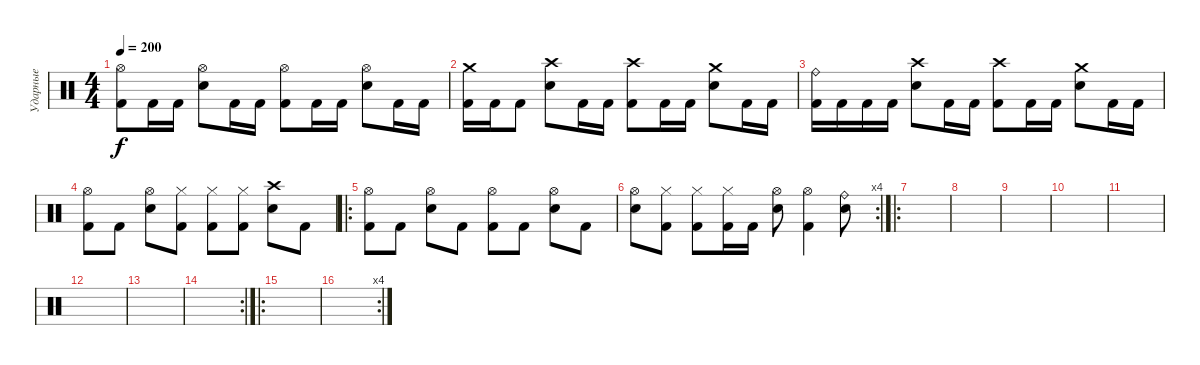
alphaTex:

\track ("Ударные" "Ударные") {instrument percussion}
\staff {score}
\articulation defaults
\ts (4 4)
\tempo 200
\clef neutral
\ks c
("Hi-Hat (open)" "Kick (hit) 2").8{dy f} "Kick (hit) 2".16 "Kick (hit) 2".16 ("Hi-Hat (open)" "Electric Snare (hit)").8 "Kick (hit) 2".16 "Kick (hit) 2".16 ("Hi-Hat (open)" "Kick (hit) 2").8 "Kick (hit) 2".16 "Kick (hit) 2".16 ("Hi-Hat (open)" "Electric Snare (hit)").8 "Kick (hit) 2".16 "Kick (hit) 2".16 |
("Crash medium (hit)" "Kick (hit) 2").16 "Kick (hit) 2".16 "Kick (hit) 2".8 ("Crash high (hit)" "Electric Snare (hit)").8 "Kick (hit) 2".16 "Kick (hit) 2".16 ("Crash high (hit)" "Kick (hit) 2").8 "Kick (hit) 2".16 "Kick (hit) 2".16 ("Crash medium (hit)" "Electric Snare (hit)").8 "Kick (hit) 2".16 "Kick (hit) 2".16 |
("Ride (bell)" "Kick (hit) 2").16 "Kick (hit) 2".16 "Kick (hit) 2".16 "Kick (hit) 2".16 ("Crash high (hit)" "Electric Snare (hit)").8 "Kick (hit) 2".16 "Kick (hit) 2".16 ("Crash high (hit)" "Kick (hit) 2").8 "Kick (hit) 2".16 "Kick (hit) 2".16 ("Crash medium (hit)" "Electric Snare (hit)").8 "Kick (hit) 2".16 "Kick (hit) 2".16 |
("Hi-Hat (open)" "Kick (hit) 2").8 "Kick (hit) 2".8 ("Hi-Hat (open)" "Electric Snare (hit)").8 ("Hi-Hat (closed)" "Kick (hit) 2").8 ("Hi-Hat (closed)" "Kick (hit) 2").8 ("Hi-Hat (closed)" "Kick (hit) 2").8 ("Crash high (hit)" "Electric Snare (hit)").8 "Kick (hit) 2".8 |
\ro
("Hi-Hat (open)" "Kick (hit) 2").8 "Kick (hit) 2".8 ("Hi-Hat (open)" "Electric Snare (hit)").8 "Kick (hit) 2".8 ("Hi-Hat (open)" "Kick (hit) 2").8 "Kick (hit) 2".8 ("Hi-Hat (open)" "Electric Snare (hit)").8 "Kick (hit) 2".8 |
\rc 4
("Hi-Hat (open)" "Electric Snare (hit)").8 ("Hi-Hat (closed)" "Kick (hit) 2").8 ("Hi-Hat (closed)" "Kick (hit) 2").8 ("Hi-Hat (closed)" "Kick (hit) 2").16 "Kick (hit) 2".16 ("Hi-Hat (open)" "Electric Snare (hit)").8 ("Hi-Hat (open)" "Kick (hit) 2").4 ("Ride (bell)" "Electric Snare (hit)").8 |
\ro
|
|
|
|
|
|
|
\rc 2
|
\ro
|
\rc 4
